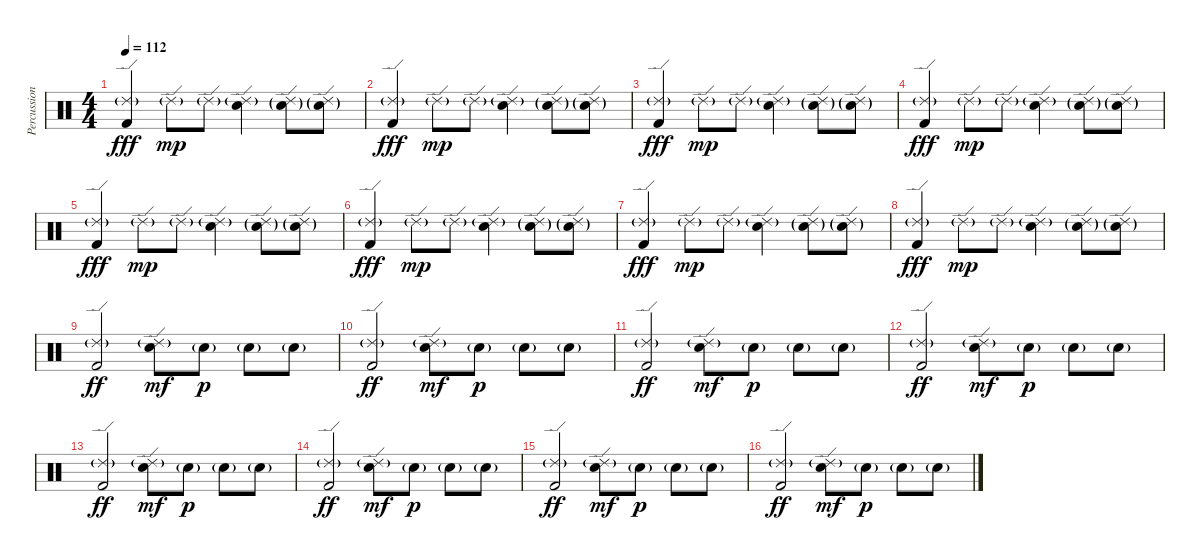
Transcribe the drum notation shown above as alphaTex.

\track ("Percussion" "Percussion") {instrument percussion}
\staff {score}
\articulation defaults
\ts (4 4)
\tempo 112
\clef neutral
\ks c
("Ride (edge) 2"{g} "Kick (hit) 2").4{dy fff} "Ride (edge) 2"{g}.8{dy mp} "Ride (edge) 2"{g}.8 ("Ride (edge) 2"{g} "Electric Snare (hit)").4 ("Ride (edge) 2"{g} "Electric Snare (hit)"{g}).8 ("Ride (edge) 2"{g} "Electric Snare (hit)"{g}).8 |
("Ride (edge) 2"{g} "Kick (hit) 2").4{dy fff} "Ride (edge) 2"{g}.8{dy mp} "Ride (edge) 2"{g}.8 ("Ride (edge) 2"{g} "Electric Snare (hit)").4 ("Ride (edge) 2"{g} "Electric Snare (hit)"{g}).8 ("Ride (edge) 2"{g} "Electric Snare (hit)"{g}).8 |
("Ride (edge) 2"{g} "Kick (hit) 2").4{dy fff} "Ride (edge) 2"{g}.8{dy mp} "Ride (edge) 2"{g}.8 ("Ride (edge) 2"{g} "Electric Snare (hit)").4 ("Ride (edge) 2"{g} "Electric Snare (hit)"{g}).8 ("Ride (edge) 2"{g} "Electric Snare (hit)"{g}).8 |
("Ride (edge) 2"{g} "Kick (hit) 2").4{dy fff} "Ride (edge) 2"{g}.8{dy mp} "Ride (edge) 2"{g}.8 ("Ride (edge) 2"{g} "Electric Snare (hit)").4 ("Ride (edge) 2"{g} "Electric Snare (hit)"{g}).8 ("Ride (edge) 2"{g} "Electric Snare (hit)"{g}).8 |
("Ride (edge) 2"{g} "Kick (hit) 2").4{dy fff} "Ride (edge) 2"{g}.8{dy mp} "Ride (edge) 2"{g}.8 ("Ride (edge) 2"{g} "Electric Snare (hit)").4 ("Ride (edge) 2"{g} "Electric Snare (hit)"{g}).8 ("Ride (edge) 2"{g} "Electric Snare (hit)"{g}).8 |
("Ride (edge) 2"{g} "Kick (hit) 2").4{dy fff} "Ride (edge) 2"{g}.8{dy mp} "Ride (edge) 2"{g}.8 ("Ride (edge) 2"{g} "Electric Snare (hit)").4 ("Ride (edge) 2"{g} "Electric Snare (hit)"{g}).8 ("Ride (edge) 2"{g} "Electric Snare (hit)"{g}).8 |
("Ride (edge) 2"{g} "Kick (hit) 2").4{dy fff} "Ride (edge) 2"{g}.8{dy mp} "Ride (edge) 2"{g}.8 ("Ride (edge) 2"{g} "Electric Snare (hit)").4 ("Ride (edge) 2"{g} "Electric Snare (hit)"{g}).8 ("Ride (edge) 2"{g} "Electric Snare (hit)"{g}).8 |
("Ride (edge) 2"{g} "Kick (hit) 2").4{dy fff} "Ride (edge) 2"{g}.8{dy mp} "Ride (edge) 2"{g}.8 ("Ride (edge) 2"{g} "Electric Snare (hit)").4 ("Ride (edge) 2"{g} "Electric Snare (hit)"{g}).8 ("Ride (edge) 2"{g} "Electric Snare (hit)"{g}).8 |
("Ride (edge) 2"{g} "Kick (hit) 2").2{dy ff} ("Ride (edge) 2"{g} "Electric Snare (hit)").8{dy mf} "Electric Snare (hit)"{g}.8{dy p} "Electric Snare (hit)"{g}.8 "Electric Snare (hit)"{g}.8 |
("Ride (edge) 2"{g} "Kick (hit) 2").2{dy ff} ("Ride (edge) 2"{g} "Electric Snare (hit)").8{dy mf} "Electric Snare (hit)"{g}.8{dy p} "Electric Snare (hit)"{g}.8 "Electric Snare (hit)"{g}.8 |
("Ride (edge) 2"{g} "Kick (hit) 2").2{dy ff} ("Ride (edge) 2"{g} "Electric Snare (hit)").8{dy mf} "Electric Snare (hit)"{g}.8{dy p} "Electric Snare (hit)"{g}.8 "Electric Snare (hit)"{g}.8 |
("Ride (edge) 2"{g} "Kick (hit) 2").2{dy ff} ("Ride (edge) 2"{g} "Electric Snare (hit)").8{dy mf} "Electric Snare (hit)"{g}.8{dy p} "Electric Snare (hit)"{g}.8 "Electric Snare (hit)"{g}.8 |
("Ride (edge) 2"{g} "Kick (hit) 2").2{dy ff} ("Ride (edge) 2"{g} "Electric Snare (hit)").8{dy mf} "Electric Snare (hit)"{g}.8{dy p} "Electric Snare (hit)"{g}.8 "Electric Snare (hit)"{g}.8 |
("Ride (edge) 2"{g} "Kick (hit) 2").2{dy ff} ("Ride (edge) 2"{g} "Electric Snare (hit)").8{dy mf} "Electric Snare (hit)"{g}.8{dy p} "Electric Snare (hit)"{g}.8 "Electric Snare (hit)"{g}.8 |
("Ride (edge) 2"{g} "Kick (hit) 2").2{dy ff} ("Ride (edge) 2"{g} "Electric Snare (hit)").8{dy mf} "Electric Snare (hit)"{g}.8{dy p} "Electric Snare (hit)"{g}.8 "Electric Snare (hit)"{g}.8 |
("Ride (edge) 2"{g} "Kick (hit) 2").2{dy ff} ("Ride (edge) 2"{g} "Electric Snare (hit)").8{dy mf} "Electric Snare (hit)"{g}.8{dy p} "Electric Snare (hit)"{g}.8 "Electric Snare (hit)"{g}.8
